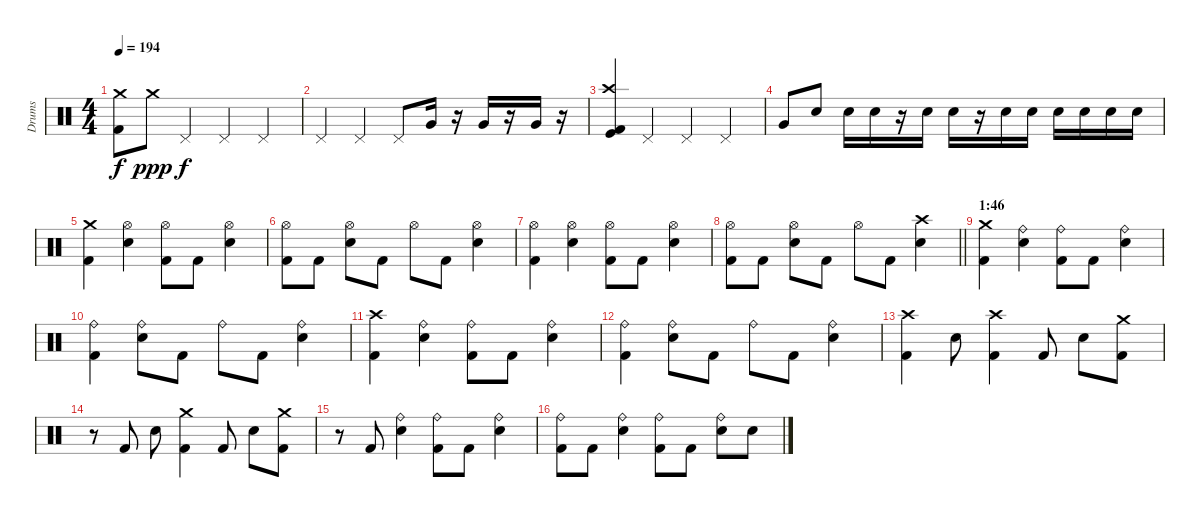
\track ("Drums" "Drums") {instrument percussion}
\staff {score}
\articulation defaults
\ts (4 4)
\tempo 194
\clef neutral
\ks c
("Crash medium (hit)" "Kick (hit) 2").8{dy f} "Crash medium (hit)".8{dy ppp} "Pedal Hi-Hat (hit)".4{dy f} "Pedal Hi-Hat (hit)".4 "Pedal Hi-Hat (hit)".4 |
"Pedal Hi-Hat (hit)".4 "Pedal Hi-Hat (hit)".4 "Pedal Hi-Hat (hit)".8 "Very Low Tom (hit)".16 r.16 "Very Low Tom (hit)".16 r.16 "Very Low Tom (hit)".16 r.16 |
("Crash high (hit)" "Kick (hit)" "Kick (hit) 2").4 "Pedal Hi-Hat (hit)".4 "Pedal Hi-Hat (hit)".4 "Pedal Hi-Hat (hit)".4 |
"Very Low Tom (hit)".8 "Snare (hit) 2".8 "Snare (hit) 2".16 "Snare (hit) 2".16 r.16 "Snare (hit) 2".16 "Snare (hit) 2".16 r.16 "Snare (hit) 2".16 "Snare (hit) 2".16 "Snare (hit) 2".16 "Snare (hit) 2".16 "Snare (hit) 2".16 "Snare (hit) 2".16 |
("Crash medium (hit)" "Kick (hit) 2").4 ("Hi-Hat (open)" "Snare (hit) 2").4 ("Hi-Hat (open)" "Kick (hit) 2").8 "Kick (hit) 2".8 ("Hi-Hat (open)" "Snare (hit) 2").4 |
("Hi-Hat (open)" "Kick (hit) 2").8 "Kick (hit) 2".8 ("Hi-Hat (open)" "Snare (hit) 2").8 "Kick (hit) 2".8 "Hi-Hat (open)".8 "Kick (hit) 2".8 ("Hi-Hat (open)" "Snare (hit) 2").4 |
("Hi-Hat (open)" "Kick (hit) 2").4 ("Hi-Hat (open)" "Snare (hit) 2").4 ("Hi-Hat (open)" "Kick (hit) 2").8 "Kick (hit) 2".8 ("Hi-Hat (open)" "Snare (hit) 2").4 |
\barLineRight lightlight
("Hi-Hat (open)" "Kick (hit) 2").8 "Kick (hit) 2".8 ("Hi-Hat (open)" "Snare (hit) 2").8 "Kick (hit) 2".8 "Hi-Hat (open)".8 "Kick (hit) 2".8 ("Crash high (hit)" "Snare (hit) 2").4 |
\section ("" "1:46")
("Crash medium (hit)" "Kick (hit) 2").4 ("Ride (bell)" "Snare (hit) 2").4 ("Ride (bell)" "Kick (hit) 2").8 "Kick (hit) 2".8 ("Ride (bell)" "Snare (hit) 2").4 |
("Ride (bell)" "Kick (hit) 2").4 ("Ride (bell)" "Snare (hit) 2").8 "Kick (hit) 2".8 "Ride (bell)".8 "Kick (hit) 2".8 ("Ride (bell)" "Snare (hit) 2").4 |
("Crash high (hit)" "Kick (hit) 2").4 ("Ride (bell)" "Snare (hit) 2").4 ("Ride (bell)" "Kick (hit) 2").8 "Kick (hit) 2".8 ("Ride (bell)" "Snare (hit) 2").4 |
("Ride (bell)" "Kick (hit) 2").4 ("Ride (bell)" "Snare (hit) 2").8 "Kick (hit) 2".8 "Ride (bell)".8 "Kick (hit) 2".8 ("Ride (bell)" "Snare (hit) 2").4 |
("Crash high (hit)" "Kick (hit) 2").4 "Snare (hit) 2".8 ("Crash high (hit)" "Kick (hit) 2").4 "Kick (hit) 2".8 "Snare (hit) 2".8 ("Crash medium (hit)" "Kick (hit) 2").8 |
r.8 "Kick (hit) 2".8 "Snare (hit) 2".8 ("Crash medium (hit)" "Kick (hit) 2").4 "Kick (hit) 2".8 "Snare (hit) 2".8 ("Crash medium (hit)" "Kick (hit) 2").8 |
r.8 "Kick (hit) 2".8 ("Ride (bell)" "Snare (hit) 2").4 ("Ride (bell)" "Kick (hit) 2").8 "Kick (hit) 2".8 ("Ride (bell)" "Snare (hit) 2").4 |
("Ride (bell)" "Kick (hit) 2").8 "Kick (hit) 2".8 ("Ride (bell)" "Snare (hit) 2").4 ("Ride (bell)" "Kick (hit) 2").8 "Kick (hit) 2".8 ("Ride (bell)" "Snare (hit) 2").8 "Snare (hit) 2".8
